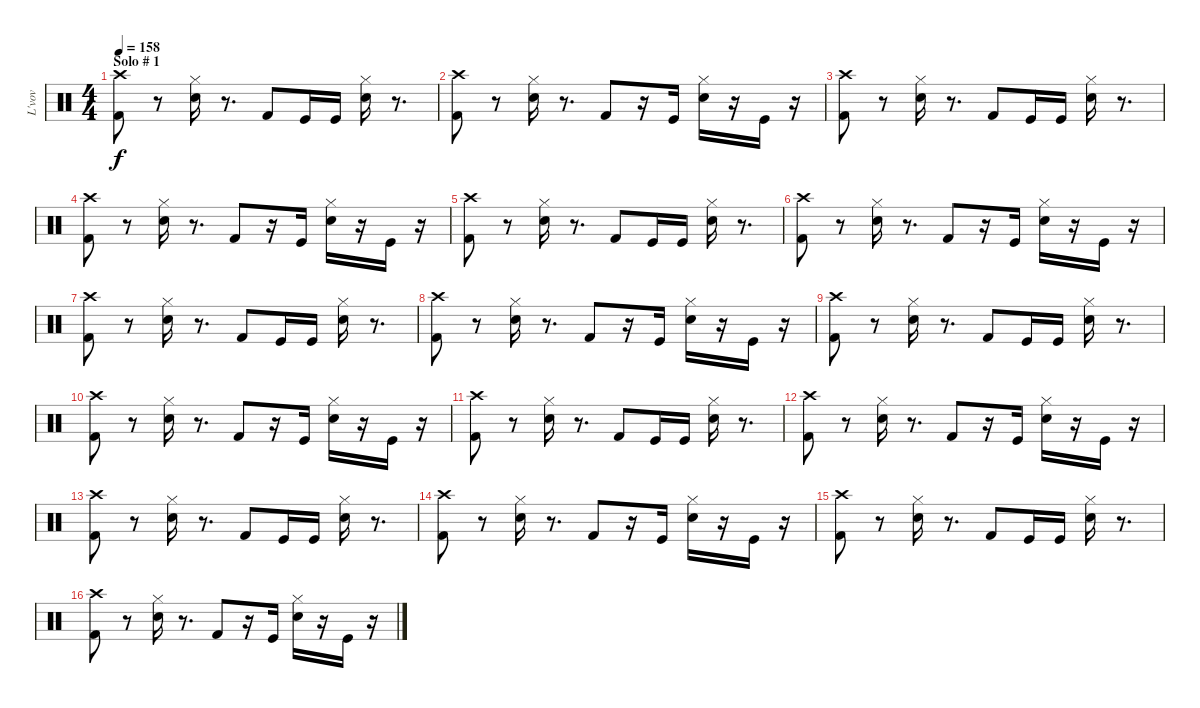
\track ("L'vov " "L'vov ") {instrument percussion}
\staff {score}
\articulation defaults
\ts (4 4)
\section ("" "Solo # 1")
\tempo 158
\clef neutral
\ks c
("Kick (hit) 2" "Crash high (hit)").8{dy f volume 14} r.8 ("Snare (hit) 2" "Hi-Hat (closed)").16 r.8{d} "Kick (hit) 2".8 "Kick (hit)".16 "Kick (hit)".16 ("Snare (hit) 2" "Hi-Hat (closed)").16 r.8{d} |
("Kick (hit) 2" "Crash high (hit)").8 r.8 ("Snare (hit) 2" "Hi-Hat (closed)").16 r.8{d} "Kick (hit) 2".8 r.16 "Kick (hit)".16 ("Electric Snare (hit)" "Hi-Hat (closed)").16 r.16 "Kick (hit)".16 r.16 |
("Kick (hit) 2" "Crash high (hit)").8 r.8 ("Snare (hit) 2" "Hi-Hat (closed)").16 r.8{d} "Kick (hit) 2".8 "Kick (hit)".16 "Kick (hit)".16 ("Snare (hit) 2" "Hi-Hat (closed)").16 r.8{d} |
("Kick (hit) 2" "Crash high (hit)").8 r.8 ("Snare (hit) 2" "Hi-Hat (closed)").16 r.8{d} "Kick (hit) 2".8 r.16 "Kick (hit)".16 ("Electric Snare (hit)" "Hi-Hat (closed)").16 r.16 "Kick (hit)".16 r.16 |
("Kick (hit) 2" "Crash high (hit)").8 r.8 ("Snare (hit) 2" "Hi-Hat (closed)").16 r.8{d} "Kick (hit) 2".8 "Kick (hit)".16 "Kick (hit)".16 ("Snare (hit) 2" "Hi-Hat (closed)").16 r.8{d} |
("Kick (hit) 2" "Crash high (hit)").8 r.8 ("Snare (hit) 2" "Hi-Hat (closed)").16 r.8{d} "Kick (hit) 2".8 r.16 "Kick (hit)".16 ("Electric Snare (hit)" "Hi-Hat (closed)").16 r.16 "Kick (hit)".16 r.16 |
("Kick (hit) 2" "Crash high (hit)").8 r.8 ("Snare (hit) 2" "Hi-Hat (closed)").16 r.8{d} "Kick (hit) 2".8 "Kick (hit)".16 "Kick (hit)".16 ("Snare (hit) 2" "Hi-Hat (closed)").16 r.8{d} |
("Kick (hit) 2" "Crash high (hit)").8 r.8 ("Snare (hit) 2" "Hi-Hat (closed)").16 r.8{d} "Kick (hit) 2".8 r.16 "Kick (hit)".16 ("Electric Snare (hit)" "Hi-Hat (closed)").16 r.16 "Kick (hit)".16 r.16 |
("Kick (hit) 2" "Crash high (hit)").8 r.8 ("Snare (hit) 2" "Hi-Hat (closed)").16 r.8{d} "Kick (hit) 2".8 "Kick (hit)".16 "Kick (hit)".16 ("Snare (hit) 2" "Hi-Hat (closed)").16 r.8{d} |
("Kick (hit) 2" "Crash high (hit)").8 r.8 ("Snare (hit) 2" "Hi-Hat (closed)").16 r.8{d} "Kick (hit) 2".8 r.16 "Kick (hit)".16 ("Electric Snare (hit)" "Hi-Hat (closed)").16 r.16 "Kick (hit)".16 r.16 |
("Kick (hit) 2" "Crash high (hit)").8 r.8 ("Snare (hit) 2" "Hi-Hat (closed)").16 r.8{d} "Kick (hit) 2".8 "Kick (hit)".16 "Kick (hit)".16 ("Snare (hit) 2" "Hi-Hat (closed)").16 r.8{d} |
("Kick (hit) 2" "Crash high (hit)").8 r.8 ("Snare (hit) 2" "Hi-Hat (closed)").16 r.8{d} "Kick (hit) 2".8 r.16 "Kick (hit)".16 ("Electric Snare (hit)" "Hi-Hat (closed)").16 r.16 "Kick (hit)".16 r.16 |
("Kick (hit) 2" "Crash high (hit)").8 r.8 ("Snare (hit) 2" "Hi-Hat (closed)").16 r.8{d} "Kick (hit) 2".8 "Kick (hit)".16 "Kick (hit)".16 ("Snare (hit) 2" "Hi-Hat (closed)").16 r.8{d} |
("Kick (hit) 2" "Crash high (hit)").8 r.8 ("Snare (hit) 2" "Hi-Hat (closed)").16 r.8{d} "Kick (hit) 2".8 r.16 "Kick (hit)".16 ("Electric Snare (hit)" "Hi-Hat (closed)").16 r.16 "Kick (hit)".16 r.16 |
("Kick (hit) 2" "Crash high (hit)").8 r.8 ("Snare (hit) 2" "Hi-Hat (closed)").16 r.8{d} "Kick (hit) 2".8 "Kick (hit)".16 "Kick (hit)".16 ("Snare (hit) 2" "Hi-Hat (closed)").16 r.8{d} |
("Kick (hit) 2" "Crash high (hit)").8 r.8 ("Snare (hit) 2" "Hi-Hat (closed)").16 r.8{d} "Kick (hit) 2".8 r.16 "Kick (hit)".16 ("Electric Snare (hit)" "Hi-Hat (closed)").16 r.16 "Kick (hit)".16 r.16
